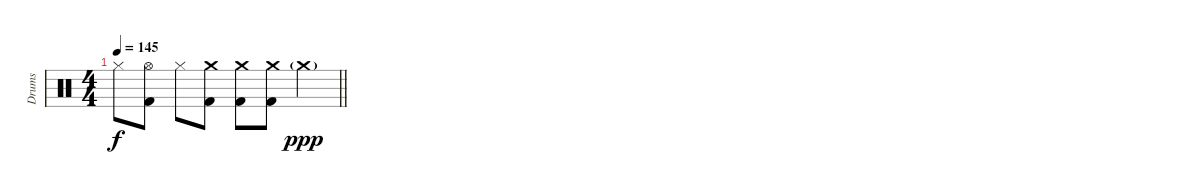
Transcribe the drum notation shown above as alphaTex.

\track ("Drums" "Drums") {instrument percussion}
\staff {score}
\articulation defaults
\ts (4 4)
\tempo 145
\clef neutral
\barLineRight lightlight
\ks c "Hi-Hat (closed)".8{dy f}
("Hi-Hat (open)" "Kick (hit) 2").8 "Hi-Hat (closed)".8 ("Crash medium (hit)" "Kick (hit) 2").8 ("Crash medium (hit)" "Kick (hit) 2").8 ("Crash medium (hit)" "Kick (hit) 2").8 "Crash medium (hit)"{g}.4{dy ppp}
